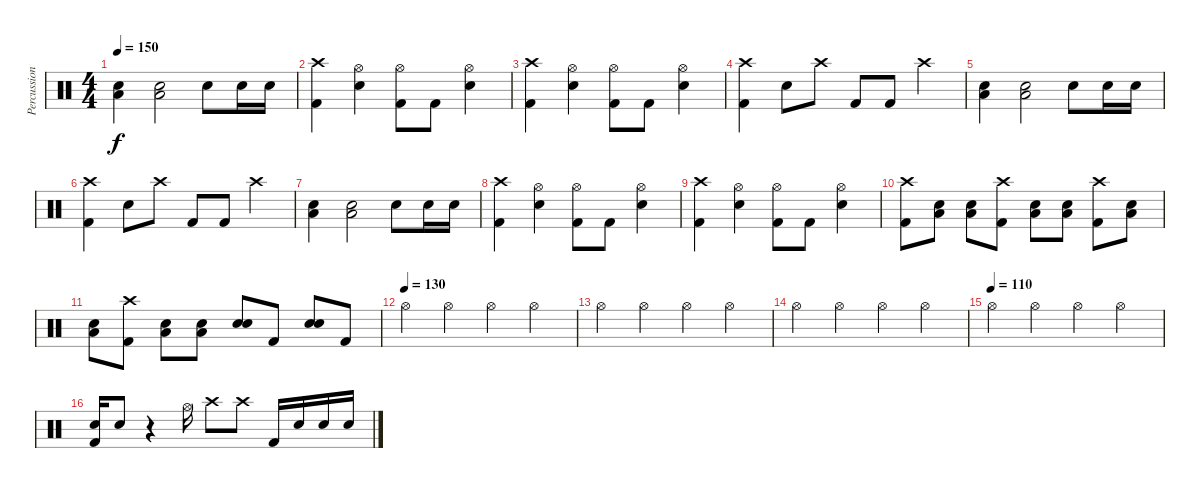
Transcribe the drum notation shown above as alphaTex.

\track ("Percussion" "Percussion") {instrument percussion}
\staff {score}
\articulation defaults
\ts (4 4)
\tempo 150
\clef neutral
\ks c
("Low Floor Tom (hit)" "Snare (hit) 2").4{dy f} ("Low Floor Tom (hit)" "Snare (hit) 2").2 "Snare (hit) 2".8 "Snare (hit) 2".16 "Snare (hit) 2".16 |
("Crash high (hit)" "Kick (hit) 2").4 ("Hi-Hat (open)" "Snare (hit) 2").4 ("Hi-Hat (open)" "Kick (hit) 2").8 "Kick (hit) 2".8 ("Hi-Hat (open)" "Snare (hit) 2").4 |
("Crash high (hit)" "Kick (hit) 2").4 ("Hi-Hat (open)" "Snare (hit) 2").4 ("Hi-Hat (open)" "Kick (hit) 2").8 "Kick (hit) 2".8 ("Hi-Hat (open)" "Snare (hit) 2").4 |
("Crash high (hit)" "Kick (hit) 2").4 "Snare (hit) 2".8 "Crash high (hit)".8 "Kick (hit) 2".8 "Kick (hit) 2".8 "Crash high (hit)".4 |
("Low Floor Tom (hit)" "Snare (hit) 2").4 ("Low Floor Tom (hit)" "Snare (hit) 2").2 "Snare (hit) 2".8 "Snare (hit) 2".16 "Snare (hit) 2".16 |
("Crash high (hit)" "Kick (hit) 2").4 "Snare (hit) 2".8 "Crash high (hit)".8 "Kick (hit) 2".8 "Kick (hit) 2".8 "Crash high (hit)".4 |
("Low Floor Tom (hit)" "Snare (hit) 2").4 ("Low Floor Tom (hit)" "Snare (hit) 2").2 "Snare (hit) 2".8 "Snare (hit) 2".16 "Snare (hit) 2".16 |
("Crash high (hit)" "Kick (hit) 2").4 ("Hi-Hat (open)" "Snare (hit) 2").4 ("Hi-Hat (open)" "Kick (hit) 2").8 "Kick (hit) 2".8 ("Hi-Hat (open)" "Snare (hit) 2").4 |
("Crash high (hit)" "Kick (hit) 2").4 ("Hi-Hat (open)" "Snare (hit) 2").4 ("Hi-Hat (open)" "Kick (hit) 2").8 "Kick (hit) 2".8 ("Hi-Hat (open)" "Snare (hit) 2").4 |
("Crash high (hit)" "Kick (hit) 2").8 ("Low Floor Tom (hit)" "Snare (hit) 2").8 ("Low Floor Tom (hit)" "Snare (hit) 2").8 ("Crash high (hit)" "Kick (hit) 2").8 ("Low Floor Tom (hit)" "Snare (hit) 2").8 ("Low Floor Tom (hit)" "Snare (hit) 2").8 ("Crash high (hit)" "Kick (hit) 2").8 ("Low Floor Tom (hit)" "Snare (hit) 2").8 |
("Low Floor Tom (hit)" "Snare (hit) 2").8 ("Crash high (hit)" "Kick (hit) 2").8 ("Low Floor Tom (hit)" "Snare (hit) 2").8 ("Low Floor Tom (hit)" "Snare (hit) 2").8 ("Snare (hit) 2" "Snare (hit) 2").8 "Kick (hit) 2".8 ("Snare (hit) 2" "Snare (hit) 2").8 "Kick (hit) 2".8 |
\tempo (130)
"Hi-Hat (open)".4 "Hi-Hat (open)".4 "Hi-Hat (open)".4 "Hi-Hat (open)".4 |
"Hi-Hat (open)".4 "Hi-Hat (open)".4 "Hi-Hat (open)".4 "Hi-Hat (open)".4 |
"Hi-Hat (open)".4 "Hi-Hat (open)".4 "Hi-Hat (open)".4 "Hi-Hat (open)".4 |
\tempo (110)
"Hi-Hat (open)".4 "Hi-Hat (open)".4 "Hi-Hat (open)".4 "Hi-Hat (open)".4 |
("Snare (hit) 2" "Kick (hit) 2").16 "Snare (hit) 2".8 r.4 "Hi-Hat (open)".16 "Crash high (hit)".8 "Crash high (hit)".8 "Kick (hit) 2".16 "Snare (hit) 2".16 "Snare (hit) 2".16 "Snare (hit) 2".16
